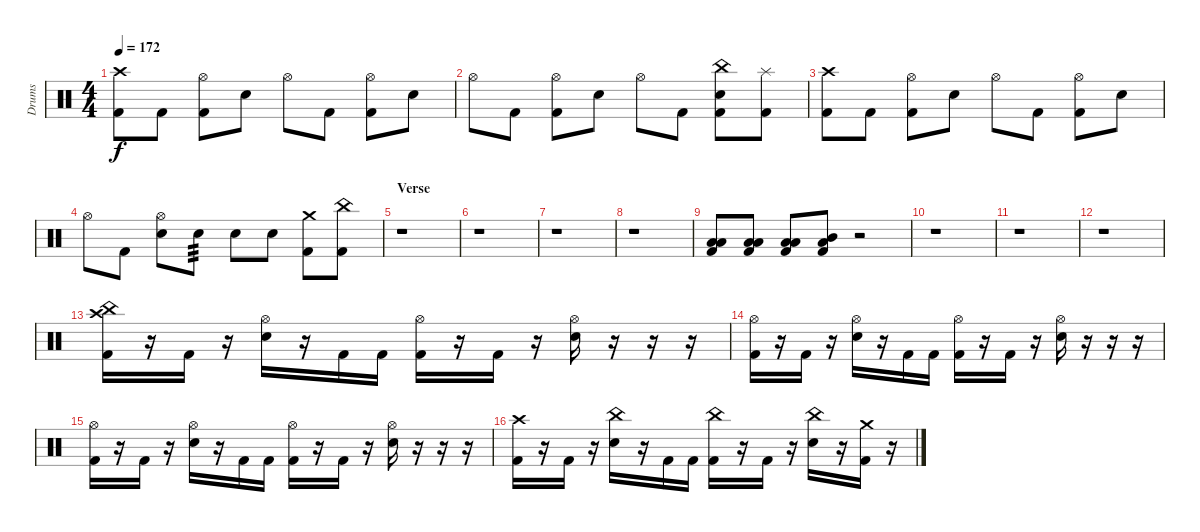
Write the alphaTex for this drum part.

\track ("Drums" "Drums") {instrument percussion}
\staff {score}
\articulation defaults
\ts (4 4)
\tempo 172
\clef neutral
\ks c
("Crash high (hit)" "Kick (hit) 2").8{dy f} "Kick (hit) 2".8 ("Hi-Hat (open)" "Kick (hit) 2").8 "Electric Snare (hit)".8 "Hi-Hat (open)".8 "Kick (hit) 2".8 ("Hi-Hat (open)" "Kick (hit) 2").8 "Electric Snare (hit)".8 |
"Hi-Hat (open)".8 "Kick (hit) 2".8 ("Hi-Hat (open)" "Kick (hit) 2").8 "Electric Snare (hit)".8 "Hi-Hat (open)".8 "Kick (hit) 2".8 ("China (hit)" "Electric Snare (hit)" "Kick (hit) 2").8 ("Splash (hit)" "Kick (hit) 2").8 |
("Crash high (hit)" "Kick (hit) 2").8 "Kick (hit) 2".8 ("Hi-Hat (open)" "Kick (hit) 2").8 "Electric Snare (hit)".8 "Hi-Hat (open)".8 "Kick (hit) 2".8 ("Hi-Hat (open)" "Kick (hit) 2").8 "Electric Snare (hit)".8 |
"Hi-Hat (open)".8 "Kick (hit) 2".8 ("Hi-Hat (open)" "Electric Snare (hit)").8 "Electric Snare (hit)".8{tp 3} "Electric Snare (hit)".8 "Electric Snare (hit)".8 ("Crash medium (hit)" "Kick (hit) 2").8 ("China (hit)" "Kick (hit) 2").8 |
\section ("" "Verse")
r.1 |
r.1 |
r.1 |
r.1 |
("Low Tom (hit)" "Low Floor Tom (hit)" "Kick (hit) 2").8 ("Low Tom (hit)" "Low Floor Tom (hit)" "Kick (hit) 2").8 ("Low Tom (hit)" "Low Floor Tom (hit)" "Kick (hit) 2").8 ("Mid Tom (hit)" "Low Tom (hit)" "Kick (hit) 2").8 r.2 |
r.1 |
r.1 |
r.1 |
("Crash high (hit)" "China (hit)" "Kick (hit) 2").16 r.16 "Kick (hit) 2".16 r.16 ("Hi-Hat (open)" "Electric Snare (hit)").16 r.16 "Kick (hit) 2".16 "Kick (hit) 2".16 ("Hi-Hat (open)" "Kick (hit) 2").16 r.16 "Kick (hit) 2".16 r.16 ("Hi-Hat (open)" "Electric Snare (hit)").16 r.16 r.16 r.16 |
("Hi-Hat (open)" "Kick (hit) 2").16 r.16 "Kick (hit) 2".16 r.16 ("Hi-Hat (open)" "Electric Snare (hit)").16 r.16 "Kick (hit) 2".16 "Kick (hit) 2".16 ("Hi-Hat (open)" "Kick (hit) 2").16 r.16 "Kick (hit) 2".16 r.16 ("Hi-Hat (open)" "Electric Snare (hit)").16 r.16 r.16 r.16 |
("Hi-Hat (open)" "Kick (hit) 2").16 r.16 "Kick (hit) 2".16 r.16 ("Hi-Hat (open)" "Electric Snare (hit)").16 r.16 "Kick (hit) 2".16 "Kick (hit) 2".16 ("Hi-Hat (open)" "Kick (hit) 2").16 r.16 "Kick (hit) 2".16 r.16 ("Hi-Hat (open)" "Electric Snare (hit)").16 r.16 r.16 r.16 |
("Crash high (hit)" "Kick (hit) 2").16 r.16 "Kick (hit) 2".16 r.16 ("China (hit)" "Electric Snare (hit)").16 r.16 "Kick (hit) 2".16 "Kick (hit) 2".16 ("China (hit)" "Kick (hit) 2").16 r.16 "Kick (hit) 2".16 r.16 ("China (hit)" "Electric Snare (hit)").16 r.16 ("Crash medium (hit)" "Kick (hit) 2").16 r.16
